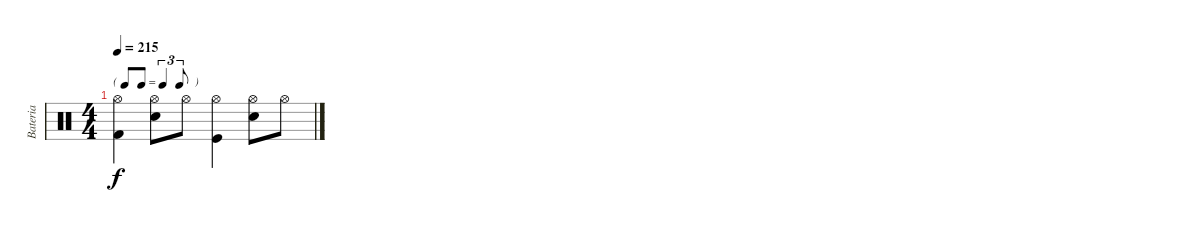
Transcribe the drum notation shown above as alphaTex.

\track ("Bateria" "Bateria") {instrument percussion}
\staff {score}
\articulation defaults
\ts (4 4)
\tf triplet8th
\tempo 215
\clef neutral
\ks c
("Hi-Hat (open)" "Kick (hit) 2").4{dy f} ("Hi-Hat (open)" "Electric Snare (hit)").8 "Hi-Hat (open)".8 ("Hi-Hat (open)" "Kick (hit)").4 ("Hi-Hat (open)" "Electric Snare (hit)").8 "Hi-Hat (open)".8
